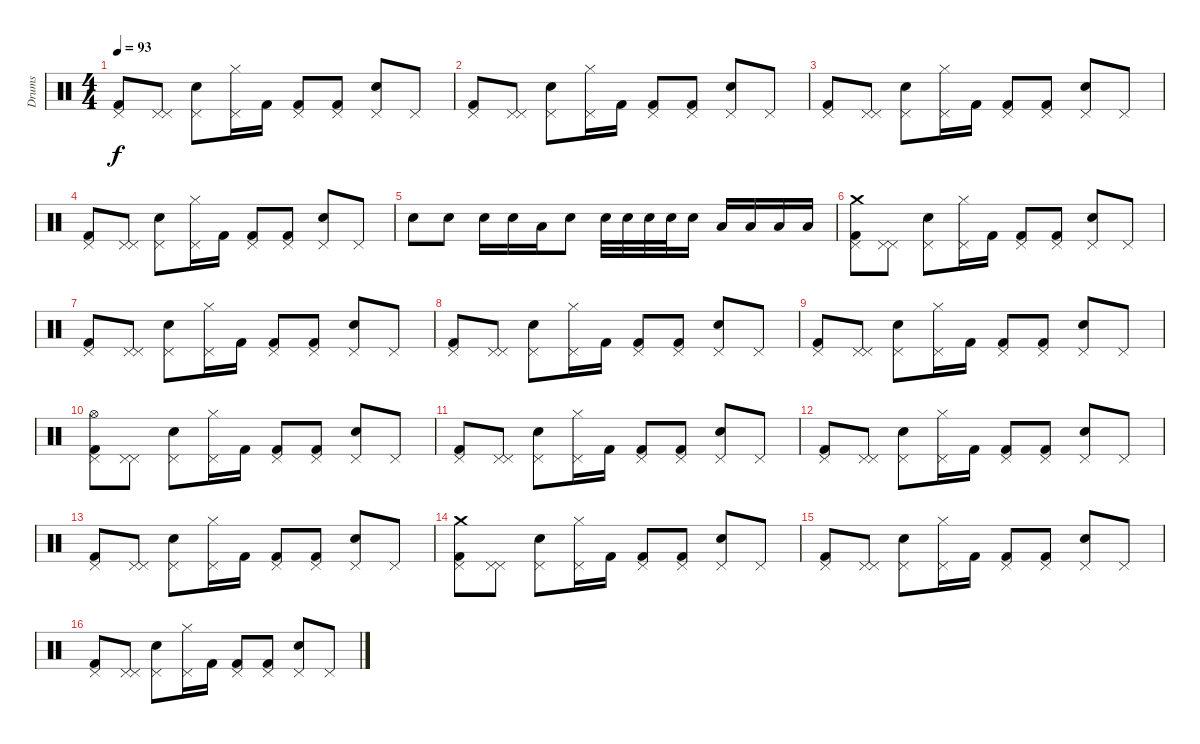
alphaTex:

\track ("Drums" "Drums") {instrument percussion}
\staff {score}
\articulation defaults
\ts (4 4)
\tempo 93
\clef neutral
\ks c
("Pedal Hi-Hat (hit)" "Kick (hit) 2").8{dy f} ("Pedal Hi-Hat (hit)" "Pedal Hi-Hat (hit)").8 ("Electric Snare (hit)" "Pedal Hi-Hat (hit)").8 ("Hi-Hat (closed)" "Pedal Hi-Hat (hit)").16 "Kick (hit) 2".16 ("Pedal Hi-Hat (hit)" "Kick (hit) 2").8 ("Pedal Hi-Hat (hit)" "Kick (hit) 2").8 ("Electric Snare (hit)" "Pedal Hi-Hat (hit)").8 "Pedal Hi-Hat (hit)".8 |
("Pedal Hi-Hat (hit)" "Kick (hit) 2").8 ("Pedal Hi-Hat (hit)" "Pedal Hi-Hat (hit)").8 ("Electric Snare (hit)" "Pedal Hi-Hat (hit)").8 ("Hi-Hat (closed)" "Pedal Hi-Hat (hit)").16 "Kick (hit) 2".16 ("Pedal Hi-Hat (hit)" "Kick (hit) 2").8 ("Pedal Hi-Hat (hit)" "Kick (hit) 2").8 ("Electric Snare (hit)" "Pedal Hi-Hat (hit)").8 "Pedal Hi-Hat (hit)".8 |
("Pedal Hi-Hat (hit)" "Kick (hit) 2").8 ("Pedal Hi-Hat (hit)" "Pedal Hi-Hat (hit)").8 ("Electric Snare (hit)" "Pedal Hi-Hat (hit)").8 ("Hi-Hat (closed)" "Pedal Hi-Hat (hit)").16 "Kick (hit) 2".16 ("Pedal Hi-Hat (hit)" "Kick (hit) 2").8 ("Pedal Hi-Hat (hit)" "Kick (hit) 2").8 ("Electric Snare (hit)" "Pedal Hi-Hat (hit)").8 "Pedal Hi-Hat (hit)".8 |
("Pedal Hi-Hat (hit)" "Kick (hit) 2").8 ("Pedal Hi-Hat (hit)" "Pedal Hi-Hat (hit)").8 ("Electric Snare (hit)" "Pedal Hi-Hat (hit)").8 ("Hi-Hat (closed)" "Pedal Hi-Hat (hit)").16 "Kick (hit) 2".16 ("Pedal Hi-Hat (hit)" "Kick (hit) 2").8 ("Pedal Hi-Hat (hit)" "Kick (hit) 2").8 ("Electric Snare (hit)" "Pedal Hi-Hat (hit)").8 "Pedal Hi-Hat (hit)".8 |
"Electric Snare (hit)".8{volume 16} "Electric Snare (hit)".8 "Electric Snare (hit)".16 "Electric Snare (hit)".16 "Low Tom (hit)".16 "Electric Snare (hit)".8 "Electric Snare (hit)".32 "Electric Snare (hit)".32 "Electric Snare (hit)".32 "Electric Snare (hit)".32 "Electric Snare (hit)".16 "Low Floor Tom (hit)".16 "Low Floor Tom (hit)".16 "Low Floor Tom (hit)".16 "Low Floor Tom (hit)".16 |
("Crash medium (hit)" "Pedal Hi-Hat (hit)" "Kick (hit) 2").8{volume 10} ("Pedal Hi-Hat (hit)" "Pedal Hi-Hat (hit)").8 ("Electric Snare (hit)" "Pedal Hi-Hat (hit)").8 ("Hi-Hat (closed)" "Pedal Hi-Hat (hit)").16 "Kick (hit) 2".16 ("Pedal Hi-Hat (hit)" "Kick (hit) 2").8 ("Pedal Hi-Hat (hit)" "Kick (hit) 2").8 ("Electric Snare (hit)" "Pedal Hi-Hat (hit)").8 "Pedal Hi-Hat (hit)".8 |
("Pedal Hi-Hat (hit)" "Kick (hit) 2").8 ("Pedal Hi-Hat (hit)" "Pedal Hi-Hat (hit)").8 ("Electric Snare (hit)" "Pedal Hi-Hat (hit)").8 ("Hi-Hat (closed)" "Pedal Hi-Hat (hit)").16 "Kick (hit) 2".16 ("Pedal Hi-Hat (hit)" "Kick (hit) 2").8 ("Pedal Hi-Hat (hit)" "Kick (hit) 2").8 ("Electric Snare (hit)" "Pedal Hi-Hat (hit)").8 "Pedal Hi-Hat (hit)".8 |
("Pedal Hi-Hat (hit)" "Kick (hit) 2").8 ("Pedal Hi-Hat (hit)" "Pedal Hi-Hat (hit)").8 ("Electric Snare (hit)" "Pedal Hi-Hat (hit)").8 ("Hi-Hat (closed)" "Pedal Hi-Hat (hit)").16 "Kick (hit) 2".16 ("Pedal Hi-Hat (hit)" "Kick (hit) 2").8 ("Pedal Hi-Hat (hit)" "Kick (hit) 2").8 ("Electric Snare (hit)" "Pedal Hi-Hat (hit)").8 "Pedal Hi-Hat (hit)".8 |
("Pedal Hi-Hat (hit)" "Kick (hit) 2").8 ("Pedal Hi-Hat (hit)" "Pedal Hi-Hat (hit)").8 ("Electric Snare (hit)" "Pedal Hi-Hat (hit)").8 ("Hi-Hat (closed)" "Pedal Hi-Hat (hit)").16 "Kick (hit) 2".16 ("Pedal Hi-Hat (hit)" "Kick (hit) 2").8 ("Pedal Hi-Hat (hit)" "Kick (hit) 2").8 ("Electric Snare (hit)" "Pedal Hi-Hat (hit)").8 "Pedal Hi-Hat (hit)".8 |
("Hi-Hat (open)" "Pedal Hi-Hat (hit)" "Kick (hit) 2").8 ("Pedal Hi-Hat (hit)" "Pedal Hi-Hat (hit)").8 ("Electric Snare (hit)" "Pedal Hi-Hat (hit)").8 ("Hi-Hat (closed)" "Pedal Hi-Hat (hit)").16 "Kick (hit) 2".16 ("Pedal Hi-Hat (hit)" "Kick (hit) 2").8 ("Pedal Hi-Hat (hit)" "Kick (hit) 2").8 ("Electric Snare (hit)" "Pedal Hi-Hat (hit)").8 "Pedal Hi-Hat (hit)".8 |
("Pedal Hi-Hat (hit)" "Kick (hit) 2").8 ("Pedal Hi-Hat (hit)" "Pedal Hi-Hat (hit)").8 ("Electric Snare (hit)" "Pedal Hi-Hat (hit)").8 ("Hi-Hat (closed)" "Pedal Hi-Hat (hit)").16 "Kick (hit) 2".16 ("Pedal Hi-Hat (hit)" "Kick (hit) 2").8 ("Pedal Hi-Hat (hit)" "Kick (hit) 2").8 ("Electric Snare (hit)" "Pedal Hi-Hat (hit)").8 "Pedal Hi-Hat (hit)".8 |
("Pedal Hi-Hat (hit)" "Kick (hit) 2").8 ("Pedal Hi-Hat (hit)" "Pedal Hi-Hat (hit)").8 ("Electric Snare (hit)" "Pedal Hi-Hat (hit)").8 ("Hi-Hat (closed)" "Pedal Hi-Hat (hit)").16 "Kick (hit) 2".16 ("Pedal Hi-Hat (hit)" "Kick (hit) 2").8 ("Pedal Hi-Hat (hit)" "Kick (hit) 2").8 ("Electric Snare (hit)" "Pedal Hi-Hat (hit)").8 "Pedal Hi-Hat (hit)".8 |
("Pedal Hi-Hat (hit)" "Kick (hit) 2").8 ("Pedal Hi-Hat (hit)" "Pedal Hi-Hat (hit)").8 ("Electric Snare (hit)" "Pedal Hi-Hat (hit)").8 ("Hi-Hat (closed)" "Pedal Hi-Hat (hit)").16 "Kick (hit) 2".16 ("Pedal Hi-Hat (hit)" "Kick (hit) 2").8 ("Pedal Hi-Hat (hit)" "Kick (hit) 2").8 ("Electric Snare (hit)" "Pedal Hi-Hat (hit)").8 "Pedal Hi-Hat (hit)".8 |
("Crash medium (hit)" "Pedal Hi-Hat (hit)" "Kick (hit) 2").8 ("Pedal Hi-Hat (hit)" "Pedal Hi-Hat (hit)").8 ("Electric Snare (hit)" "Pedal Hi-Hat (hit)").8 ("Hi-Hat (closed)" "Pedal Hi-Hat (hit)").16 "Kick (hit) 2".16 ("Pedal Hi-Hat (hit)" "Kick (hit) 2").8 ("Pedal Hi-Hat (hit)" "Kick (hit) 2").8 ("Electric Snare (hit)" "Pedal Hi-Hat (hit)").8 "Pedal Hi-Hat (hit)".8 |
("Pedal Hi-Hat (hit)" "Kick (hit) 2").8 ("Pedal Hi-Hat (hit)" "Pedal Hi-Hat (hit)").8 ("Electric Snare (hit)" "Pedal Hi-Hat (hit)").8 ("Hi-Hat (closed)" "Pedal Hi-Hat (hit)").16 "Kick (hit) 2".16 ("Pedal Hi-Hat (hit)" "Kick (hit) 2").8 ("Pedal Hi-Hat (hit)" "Kick (hit) 2").8 ("Electric Snare (hit)" "Pedal Hi-Hat (hit)").8 "Pedal Hi-Hat (hit)".8 |
("Pedal Hi-Hat (hit)" "Kick (hit) 2").8 ("Pedal Hi-Hat (hit)" "Pedal Hi-Hat (hit)").8 ("Electric Snare (hit)" "Pedal Hi-Hat (hit)").8 ("Hi-Hat (closed)" "Pedal Hi-Hat (hit)").16 "Kick (hit) 2".16 ("Pedal Hi-Hat (hit)" "Kick (hit) 2").8 ("Pedal Hi-Hat (hit)" "Kick (hit) 2").8 ("Electric Snare (hit)" "Pedal Hi-Hat (hit)").8 "Pedal Hi-Hat (hit)".8
